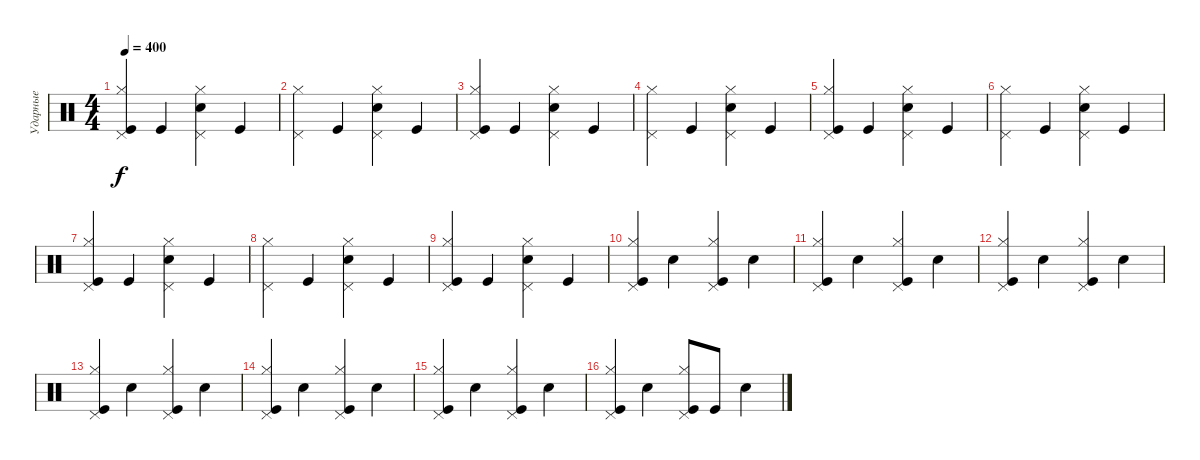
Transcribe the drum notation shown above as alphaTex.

\track ("Ударные" "Ударные") {instrument percussion}
\staff {score}
\articulation defaults
\ts (4 4)
\tempo 400
\clef neutral
\ks c
("Kick (hit)" "Hi-Hat (closed)" "Pedal Hi-Hat (hit)").4{dy f} "Kick (hit)".4 ("Electric Snare (hit)" "Pedal Hi-Hat (hit)" "Hi-Hat (closed)").4 "Kick (hit)".4 |
("Hi-Hat (closed)" "Pedal Hi-Hat (hit)").4 "Kick (hit)".4 ("Electric Snare (hit)" "Pedal Hi-Hat (hit)" "Hi-Hat (closed)").4 "Kick (hit)".4 |
("Kick (hit)" "Hi-Hat (closed)" "Pedal Hi-Hat (hit)").4 "Kick (hit)".4 ("Electric Snare (hit)" "Pedal Hi-Hat (hit)" "Hi-Hat (closed)").4 "Kick (hit)".4 |
("Hi-Hat (closed)" "Pedal Hi-Hat (hit)").4 "Kick (hit)".4 ("Electric Snare (hit)" "Pedal Hi-Hat (hit)" "Hi-Hat (closed)").4 "Kick (hit)".4 |
("Kick (hit)" "Hi-Hat (closed)" "Pedal Hi-Hat (hit)").4 "Kick (hit)".4 ("Electric Snare (hit)" "Pedal Hi-Hat (hit)" "Hi-Hat (closed)").4 "Kick (hit)".4 |
("Hi-Hat (closed)" "Pedal Hi-Hat (hit)").4 "Kick (hit)".4 ("Electric Snare (hit)" "Pedal Hi-Hat (hit)" "Hi-Hat (closed)").4 "Kick (hit)".4 |
("Kick (hit)" "Hi-Hat (closed)" "Pedal Hi-Hat (hit)").4 "Kick (hit)".4 ("Electric Snare (hit)" "Pedal Hi-Hat (hit)" "Hi-Hat (closed)").4 "Kick (hit)".4 |
("Hi-Hat (closed)" "Pedal Hi-Hat (hit)").4 "Kick (hit)".4 ("Electric Snare (hit)" "Pedal Hi-Hat (hit)" "Hi-Hat (closed)").4 "Kick (hit)".4 |
("Kick (hit)" "Hi-Hat (closed)" "Pedal Hi-Hat (hit)").4 "Kick (hit)".4 ("Electric Snare (hit)" "Pedal Hi-Hat (hit)" "Hi-Hat (closed)").4 "Kick (hit)".4 |
("Kick (hit)" "Hi-Hat (closed)" "Pedal Hi-Hat (hit)").4 "Electric Snare (hit)".4 ("Kick (hit)" "Pedal Hi-Hat (hit)" "Hi-Hat (closed)").4 "Electric Snare (hit)".4 |
("Kick (hit)" "Hi-Hat (closed)" "Pedal Hi-Hat (hit)").4 "Electric Snare (hit)".4 ("Kick (hit)" "Pedal Hi-Hat (hit)" "Hi-Hat (closed)").4 "Electric Snare (hit)".4 |
("Kick (hit)" "Hi-Hat (closed)" "Pedal Hi-Hat (hit)").4 "Electric Snare (hit)".4 ("Kick (hit)" "Pedal Hi-Hat (hit)" "Hi-Hat (closed)").4 "Electric Snare (hit)".4 |
("Kick (hit)" "Hi-Hat (closed)" "Pedal Hi-Hat (hit)").4 "Electric Snare (hit)".4 ("Kick (hit)" "Pedal Hi-Hat (hit)" "Hi-Hat (closed)").4 "Electric Snare (hit)".4 |
("Kick (hit)" "Hi-Hat (closed)" "Pedal Hi-Hat (hit)").4 "Electric Snare (hit)".4 ("Kick (hit)" "Pedal Hi-Hat (hit)" "Hi-Hat (closed)").4 "Electric Snare (hit)".4 |
("Kick (hit)" "Hi-Hat (closed)" "Pedal Hi-Hat (hit)").4 "Electric Snare (hit)".4 ("Kick (hit)" "Pedal Hi-Hat (hit)" "Hi-Hat (closed)").4 "Electric Snare (hit)".4 |
("Kick (hit)" "Hi-Hat (closed)" "Pedal Hi-Hat (hit)").4 "Electric Snare (hit)".4 ("Kick (hit)" "Pedal Hi-Hat (hit)" "Hi-Hat (closed)").8 "Kick (hit)".8 "Electric Snare (hit)".4
